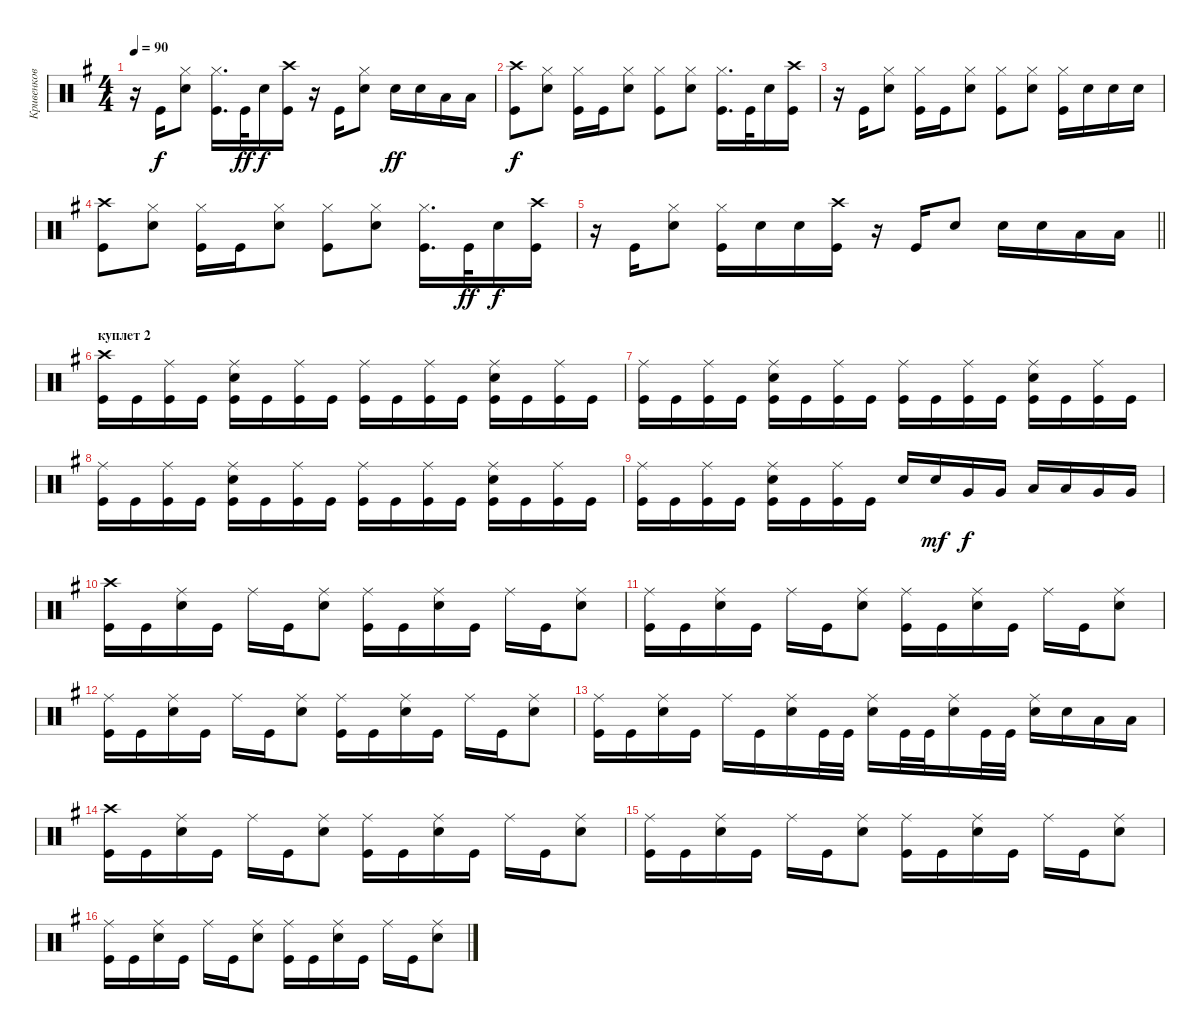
\track ("Кривенков" "Кривенков") {instrument percussion}
\staff {score}
\articulation defaults
\ts (4 4)
\tempo 90
\clef neutral
\ks eminor
r.16{dy f} "Kick (hit)".16 ("Snare (hit) 2" "Hi-Hat (closed)").8 ("Kick (hit)" "Hi-Hat (closed)").16{d} "Kick (hit)".32{dy ff} "Snare (hit) 2".16{dy f} ("Kick (hit)" "Crash high (hit)").16 r.16 "Kick (hit)".16 ("Snare (hit) 2" "Hi-Hat (closed)").8 "Snare (hit) 2".16{dy ff} "Snare (hit) 2".16 "Low Tom (hit)".16 "Low Tom (hit)".16 |
("Kick (hit)" "Crash high (hit)").8{dy f} ("Snare (hit) 2" "Hi-Hat (closed)").8 ("Kick (hit)" "Hi-Hat (closed)").16 "Kick (hit)".16 ("Snare (hit) 2" "Hi-Hat (closed)").8 ("Kick (hit)" "Hi-Hat (closed)").8 ("Snare (hit) 2" "Hi-Hat (closed)").8 ("Kick (hit)" "Hi-Hat (closed)").16{d} "Kick (hit)".32 "Snare (hit) 2".16 ("Kick (hit)" "Crash high (hit)").16 |
r.16 "Kick (hit)".16 ("Snare (hit) 2" "Hi-Hat (closed)").8 ("Kick (hit)" "Hi-Hat (closed)").16 "Kick (hit)".16 ("Snare (hit) 2" "Hi-Hat (closed)").8 ("Kick (hit)" "Hi-Hat (closed)").8 ("Snare (hit) 2" "Hi-Hat (closed)").8 ("Kick (hit)" "Hi-Hat (closed)").16 "Snare (hit) 2".16 "Snare (hit) 2".16 "Snare (hit) 2".16 |
("Kick (hit)" "Crash high (hit)").8 ("Snare (hit) 2" "Hi-Hat (closed)").8 ("Kick (hit)" "Hi-Hat (closed)").16 "Kick (hit)".16 ("Snare (hit) 2" "Hi-Hat (closed)").8 ("Kick (hit)" "Hi-Hat (closed)").8 ("Snare (hit) 2" "Hi-Hat (closed)").8 ("Kick (hit)" "Hi-Hat (closed)").16{d} "Kick (hit)".32{dy ff} "Snare (hit) 2".16{dy f} ("Kick (hit)" "Crash high (hit)").16 |
\barLineRight lightlight
r.16 "Kick (hit)".16 ("Snare (hit) 2" "Hi-Hat (closed)").8 ("Kick (hit)" "Hi-Hat (closed)").16 "Snare (hit) 2".16 "Snare (hit) 2".16 ("Kick (hit)" "Crash high (hit)").16 r.16 "Kick (hit)".16 "Snare (hit) 2".8 "Snare (hit) 2".16 "Snare (hit) 2".16 "Low Tom (hit)".16 "Low Tom (hit)".16 |
\section ("" "куплет 2")
("Kick (hit)" "Crash high (hit)").16 "Kick (hit)".16 ("Kick (hit)" "Ride (middle)").16 "Kick (hit)".16 ("Kick (hit)" "Ride (middle)" "Snare (hit) 2").16 "Kick (hit)".16 ("Kick (hit)" "Ride (middle)").16 "Kick (hit)".16 ("Kick (hit)" "Ride (middle)").16 "Kick (hit)".16 ("Kick (hit)" "Ride (middle)").16 "Kick (hit)".16 ("Kick (hit)" "Ride (middle)" "Snare (hit) 2").16 "Kick (hit)".16 ("Kick (hit)" "Ride (middle)").16 "Kick (hit)".16 |
("Kick (hit)" "Ride (middle)").16 "Kick (hit)".16 ("Kick (hit)" "Ride (middle)").16 "Kick (hit)".16 ("Kick (hit)" "Ride (middle)" "Snare (hit) 2").16 "Kick (hit)".16 ("Kick (hit)" "Ride (middle)").16 "Kick (hit)".16 ("Kick (hit)" "Ride (middle)").16 "Kick (hit)".16 ("Kick (hit)" "Ride (middle)").16 "Kick (hit)".16 ("Kick (hit)" "Ride (middle)" "Snare (hit) 2").16 "Kick (hit)".16 ("Kick (hit)" "Ride (middle)").16 "Kick (hit)".16 |
("Kick (hit)" "Ride (middle)").16 "Kick (hit)".16 ("Kick (hit)" "Ride (middle)").16 "Kick (hit)".16 ("Kick (hit)" "Ride (middle)" "Snare (hit) 2").16 "Kick (hit)".16 ("Kick (hit)" "Ride (middle)").16 "Kick (hit)".16 ("Kick (hit)" "Ride (middle)").16 "Kick (hit)".16 ("Kick (hit)" "Ride (middle)").16 "Kick (hit)".16 ("Kick (hit)" "Ride (middle)" "Snare (hit) 2").16 "Kick (hit)".16 ("Kick (hit)" "Ride (middle)").16 "Kick (hit)".16 |
("Kick (hit)" "Ride (middle)").16 "Kick (hit)".16 ("Kick (hit)" "Ride (middle)").16 "Kick (hit)".16 ("Kick (hit)" "Ride (middle)" "Snare (hit) 2").16 "Kick (hit)".16 ("Kick (hit)" "Ride (middle)").16 "Kick (hit)".16 "Snare (hit) 2".16 "Snare (hit) 2".16{dy mf} "Very Low Tom (hit)".16{dy f} "Very Low Tom (hit)".16 "Low Tom (hit)".16 "Low Tom (hit)".16 "Very Low Tom (hit)".16 "Very Low Tom (hit)".16 |
("Kick (hit)" "Crash high (hit)").16 "Kick (hit)".16 ("Snare (hit) 2" "Ride (middle)").16 "Kick (hit)".16 "Ride (middle)".16 "Kick (hit)".16 ("Ride (middle)" "Snare (hit) 2").8 ("Kick (hit)" "Ride (middle)").16 "Kick (hit)".16 ("Snare (hit) 2" "Ride (middle)").16 "Kick (hit)".16 "Ride (middle)".16 "Kick (hit)".16 ("Ride (middle)" "Snare (hit) 2").8 |
("Kick (hit)" "Ride (middle)").16 "Kick (hit)".16 ("Snare (hit) 2" "Ride (middle)").16 "Kick (hit)".16 "Ride (middle)".16 "Kick (hit)".16 ("Ride (middle)" "Snare (hit) 2").8 ("Kick (hit)" "Ride (middle)").16 "Kick (hit)".16 ("Snare (hit) 2" "Ride (middle)").16 "Kick (hit)".16 "Ride (middle)".16 "Kick (hit)".16 ("Ride (middle)" "Snare (hit) 2").8 |
("Kick (hit)" "Ride (middle)").16 "Kick (hit)".16 ("Snare (hit) 2" "Ride (middle)").16 "Kick (hit)".16 "Ride (middle)".16 "Kick (hit)".16 ("Ride (middle)" "Snare (hit) 2").8 ("Kick (hit)" "Ride (middle)").16 "Kick (hit)".16 ("Snare (hit) 2" "Ride (middle)").16 "Kick (hit)".16 "Ride (middle)".16 "Kick (hit)".16 ("Ride (middle)" "Snare (hit) 2").8 |
("Kick (hit)" "Ride (middle)").16 "Kick (hit)".16 ("Snare (hit) 2" "Ride (middle)").16 "Kick (hit)".16 "Ride (middle)".16 "Kick (hit)".16 ("Ride (middle)" "Snare (hit) 2").16 "Kick (hit)".32 "Kick (hit)".32 ("Snare (hit) 2" "Ride (middle)").16 "Kick (hit)".32 "Kick (hit)".32 ("Snare (hit) 2" "Ride (middle)").16 "Kick (hit)".32 "Kick (hit)".32 ("Snare (hit) 2" "Ride (middle)").16 "Snare (hit) 2".16 "Low Tom (hit)".16 "Low Tom (hit)".16 |
("Kick (hit)" "Crash high (hit)").16 "Kick (hit)".16 ("Snare (hit) 2" "Ride (middle)").16 "Kick (hit)".16 "Ride (middle)".16 "Kick (hit)".16 ("Ride (middle)" "Snare (hit) 2").8 ("Kick (hit)" "Ride (middle)").16 "Kick (hit)".16 ("Snare (hit) 2" "Ride (middle)").16 "Kick (hit)".16 "Ride (middle)".16 "Kick (hit)".16 ("Ride (middle)" "Snare (hit) 2").8 |
("Kick (hit)" "Ride (middle)").16 "Kick (hit)".16 ("Snare (hit) 2" "Ride (middle)").16 "Kick (hit)".16 "Ride (middle)".16 "Kick (hit)".16 ("Ride (middle)" "Snare (hit) 2").8 ("Kick (hit)" "Ride (middle)").16 "Kick (hit)".16 ("Snare (hit) 2" "Ride (middle)").16 "Kick (hit)".16 "Ride (middle)".16 "Kick (hit)".16 ("Ride (middle)" "Snare (hit) 2").8 |
("Kick (hit)" "Ride (middle)").16 "Kick (hit)".16 ("Snare (hit) 2" "Ride (middle)").16 "Kick (hit)".16 "Ride (middle)".16 "Kick (hit)".16 ("Ride (middle)" "Snare (hit) 2").8 ("Kick (hit)" "Ride (middle)").16 "Kick (hit)".16 ("Snare (hit) 2" "Ride (middle)").16 "Kick (hit)".16 "Ride (middle)".16 "Kick (hit)".16 ("Ride (middle)" "Snare (hit) 2").8
